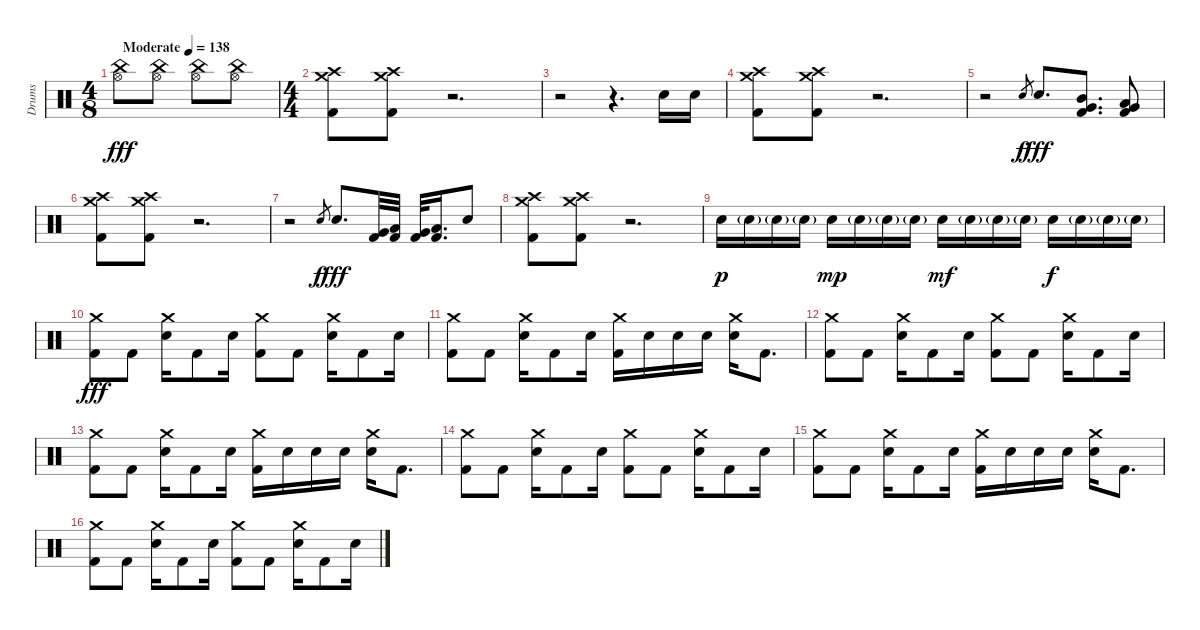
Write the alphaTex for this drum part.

\track ("Drums" "Drums") {instrument percussion}
\staff {score}
\articulation defaults
\ts (4 8)
\tempo (138 "Moderate")
\clef neutral
\ks c
("China (hit)" "Hi-Hat (open)").8{dy fff} ("China (hit)" "Hi-Hat (open)").8 ("China (hit)" "Hi-Hat (open)").8 ("China (hit)" "Hi-Hat (open)").8 |
\ts (4 4)
("Crash medium (hit)" "Crash high (hit)" "Kick (hit) 2").8 ("Crash medium (hit)" "Crash high (hit)" "Kick (hit) 2").8 r.2{d} |
r.2 r.4{d} "Electric Snare (hit)".16 "Electric Snare (hit)".16 |
("Crash medium (hit)" "Crash high (hit)" "Kick (hit) 2").8 ("Crash medium (hit)" "Crash high (hit)" "Kick (hit) 2").8 r.2{d} |
r.2 "Electric Snare (hit)".8{gr dy f} "Electric Snare (hit)".8{d dy fff} ("Very Low Tom (hit)" "Mid Tom (hit)" "Kick (hit) 2").8{d} ("Low Floor Tom (hit)" "Very Low Tom (hit)" "Kick (hit) 2").8 |
("Crash medium (hit)" "Crash high (hit)" "Kick (hit) 2").8 ("Crash medium (hit)" "Crash high (hit)" "Kick (hit) 2").8 r.2{d} |
r.2 "Electric Snare (hit)".8{gr dy f} "Electric Snare (hit)".8{d dy fff} ("Very Low Tom (hit)" "Kick (hit) 2").32 ("Low Floor Tom (hit)" "Kick (hit) 2").32 ("Very Low Tom (hit)" "Kick (hit) 2").32 ("Low Floor Tom (hit)" "Kick (hit) 2").16{d} "Electric Snare (hit)".8 |
("Crash medium (hit)" "Crash high (hit)" "Kick (hit) 2").8 ("Crash medium (hit)" "Crash high (hit)" "Kick (hit) 2").8 r.2{d} |
"Electric Snare (hit)".16{dy p} "Electric Snare (hit)"{g}.16 "Electric Snare (hit)"{g}.16 "Electric Snare (hit)"{g}.16 "Electric Snare (hit)".16{dy mp} "Electric Snare (hit)"{g}.16 "Electric Snare (hit)"{g}.16 "Electric Snare (hit)"{g}.16 "Electric Snare (hit)".16{dy mf} "Electric Snare (hit)"{g}.16 "Electric Snare (hit)"{g}.16 "Electric Snare (hit)"{g}.16 "Electric Snare (hit)".16{dy f} "Electric Snare (hit)"{g}.16 "Electric Snare (hit)"{g}.16 "Electric Snare (hit)"{g}.16 |
("Crash medium (hit)" "Kick (hit) 2").8{dy fff} "Kick (hit) 2".8 ("Crash medium (hit)" "Electric Snare (hit)").16 "Kick (hit) 2".8 "Electric Snare (hit)".16 ("Crash medium (hit)" "Kick (hit) 2").8 "Kick (hit) 2".8 ("Crash medium (hit)" "Electric Snare (hit)").16 "Kick (hit) 2".8 "Electric Snare (hit)".16 |
("Crash medium (hit)" "Kick (hit) 2").8 "Kick (hit) 2".8 ("Crash medium (hit)" "Electric Snare (hit)").16 "Kick (hit) 2".8 "Electric Snare (hit)".16 ("Crash medium (hit)" "Kick (hit) 2").16 "Electric Snare (hit)".16 "Electric Snare (hit)".16 "Electric Snare (hit)".16 ("Crash medium (hit)" "Electric Snare (hit)").16 "Kick (hit) 2".8{d} |
("Crash medium (hit)" "Kick (hit) 2").8 "Kick (hit) 2".8 ("Crash medium (hit)" "Electric Snare (hit)").16 "Kick (hit) 2".8 "Electric Snare (hit)".16 ("Crash medium (hit)" "Kick (hit) 2").8 "Kick (hit) 2".8 ("Crash medium (hit)" "Electric Snare (hit)").16 "Kick (hit) 2".8 "Electric Snare (hit)".16 |
("Crash medium (hit)" "Kick (hit) 2").8 "Kick (hit) 2".8 ("Crash medium (hit)" "Electric Snare (hit)").16 "Kick (hit) 2".8 "Electric Snare (hit)".16 ("Crash medium (hit)" "Kick (hit) 2").16 "Electric Snare (hit)".16 "Electric Snare (hit)".16 "Electric Snare (hit)".16 ("Crash medium (hit)" "Electric Snare (hit)").16 "Kick (hit) 2".8{d} |
("Crash medium (hit)" "Kick (hit) 2").8 "Kick (hit) 2".8 ("Crash medium (hit)" "Electric Snare (hit)").16 "Kick (hit) 2".8 "Electric Snare (hit)".16 ("Crash medium (hit)" "Kick (hit) 2").8 "Kick (hit) 2".8 ("Crash medium (hit)" "Electric Snare (hit)").16 "Kick (hit) 2".8 "Electric Snare (hit)".16 |
("Crash medium (hit)" "Kick (hit) 2").8 "Kick (hit) 2".8 ("Crash medium (hit)" "Electric Snare (hit)").16 "Kick (hit) 2".8 "Electric Snare (hit)".16 ("Crash medium (hit)" "Kick (hit) 2").16 "Electric Snare (hit)".16 "Electric Snare (hit)".16 "Electric Snare (hit)".16 ("Crash medium (hit)" "Electric Snare (hit)").16 "Kick (hit) 2".8{d} |
("Crash medium (hit)" "Kick (hit) 2").8 "Kick (hit) 2".8 ("Crash medium (hit)" "Electric Snare (hit)").16 "Kick (hit) 2".8 "Electric Snare (hit)".16 ("Crash medium (hit)" "Kick (hit) 2").8 "Kick (hit) 2".8 ("Crash medium (hit)" "Electric Snare (hit)").16 "Kick (hit) 2".8 "Electric Snare (hit)".16
